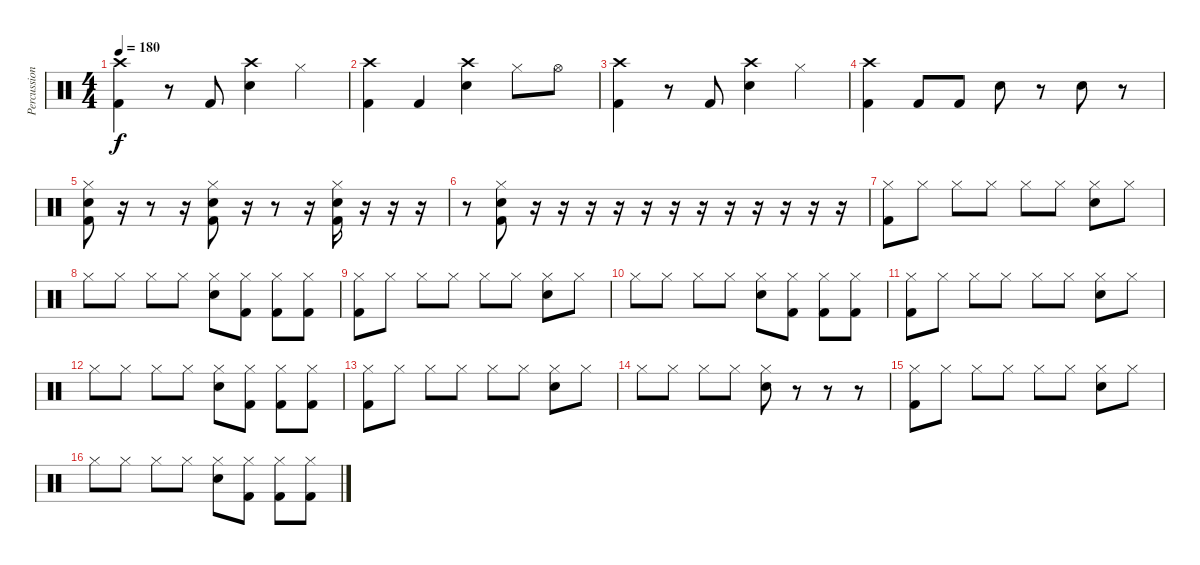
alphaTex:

\track ("Percussion" "Percussion") {instrument percussion}
\staff {score}
\articulation defaults
\ts (4 4)
\tempo 180
\clef neutral
\ks c
("Crash high (hit)" "Kick (hit) 2").4{dy f} r.8 "Kick (hit) 2".8 ("Crash high (hit)" "Electric Snare (hit)").4 "Hi-Hat (closed)".4 |
("Crash high (hit)" "Kick (hit) 2").4 "Kick (hit) 2".4 ("Crash high (hit)" "Electric Snare (hit)").4 "Hi-Hat (closed)".8 "Hi-Hat (open)".8 |
("Crash high (hit)" "Kick (hit) 2").4 r.8 "Kick (hit) 2".8 ("Crash high (hit)" "Electric Snare (hit)").4 "Hi-Hat (closed)".4 |
("Crash high (hit)" "Kick (hit) 2").4 "Kick (hit) 2".8 "Kick (hit) 2".8 "Electric Snare (hit)".8 r.8 "Electric Snare (hit)".8 r.8 |
("Hi-Hat (closed)" "Electric Snare (hit)" "Kick (hit) 2").8 r.16 r.8 r.16 ("Hi-Hat (closed)" "Electric Snare (hit)" "Kick (hit) 2").8 r.16 r.8 r.16 ("Hi-Hat (closed)" "Electric Snare (hit)" "Kick (hit) 2").16 r.16 r.16 r.16 |
r.8 ("Hi-Hat (closed)" "Electric Snare (hit)" "Kick (hit) 2").8 r.16 r.16 r.16 r.16 r.16 r.16 r.16 r.16 r.16 r.16 r.16 r.16 |
("Hi-Hat (closed)" "Kick (hit) 2").8 "Hi-Hat (closed)".8 "Hi-Hat (closed)".8 "Hi-Hat (closed)".8 "Hi-Hat (closed)".8 "Hi-Hat (closed)".8 ("Hi-Hat (closed)" "Electric Snare (hit)").8 "Hi-Hat (closed)".8 |
"Hi-Hat (closed)".8 "Hi-Hat (closed)".8 "Hi-Hat (closed)".8 "Hi-Hat (closed)".8 ("Hi-Hat (closed)" "Electric Snare (hit)").8 ("Hi-Hat (closed)" "Kick (hit) 2").8 ("Hi-Hat (closed)" "Kick (hit) 2").8 ("Hi-Hat (closed)" "Kick (hit) 2").8 |
("Hi-Hat (closed)" "Kick (hit) 2").8 "Hi-Hat (closed)".8 "Hi-Hat (closed)".8 "Hi-Hat (closed)".8 "Hi-Hat (closed)".8 "Hi-Hat (closed)".8 ("Hi-Hat (closed)" "Electric Snare (hit)").8 "Hi-Hat (closed)".8 |
"Hi-Hat (closed)".8 "Hi-Hat (closed)".8 "Hi-Hat (closed)".8 "Hi-Hat (closed)".8 ("Hi-Hat (closed)" "Electric Snare (hit)").8 ("Hi-Hat (closed)" "Kick (hit) 2").8 ("Hi-Hat (closed)" "Kick (hit) 2").8 ("Hi-Hat (closed)" "Kick (hit) 2").8 |
("Hi-Hat (closed)" "Kick (hit) 2").8 "Hi-Hat (closed)".8 "Hi-Hat (closed)".8 "Hi-Hat (closed)".8 "Hi-Hat (closed)".8 "Hi-Hat (closed)".8 ("Hi-Hat (closed)" "Electric Snare (hit)").8 "Hi-Hat (closed)".8 |
"Hi-Hat (closed)".8 "Hi-Hat (closed)".8 "Hi-Hat (closed)".8 "Hi-Hat (closed)".8 ("Hi-Hat (closed)" "Electric Snare (hit)").8 ("Hi-Hat (closed)" "Kick (hit) 2").8 ("Hi-Hat (closed)" "Kick (hit) 2").8 ("Hi-Hat (closed)" "Kick (hit) 2").8 |
("Hi-Hat (closed)" "Kick (hit) 2").8 "Hi-Hat (closed)".8 "Hi-Hat (closed)".8 "Hi-Hat (closed)".8 "Hi-Hat (closed)".8 "Hi-Hat (closed)".8 ("Hi-Hat (closed)" "Electric Snare (hit)").8 "Hi-Hat (closed)".8 |
"Hi-Hat (closed)".8 "Hi-Hat (closed)".8 "Hi-Hat (closed)".8 "Hi-Hat (closed)".8 ("Hi-Hat (closed)" "Electric Snare (hit)").8 r.8 r.8 r.8 |
("Hi-Hat (closed)" "Kick (hit) 2").8 "Hi-Hat (closed)".8 "Hi-Hat (closed)".8 "Hi-Hat (closed)".8 "Hi-Hat (closed)".8 "Hi-Hat (closed)".8 ("Hi-Hat (closed)" "Electric Snare (hit)").8 "Hi-Hat (closed)".8 |
"Hi-Hat (closed)".8 "Hi-Hat (closed)".8 "Hi-Hat (closed)".8 "Hi-Hat (closed)".8 ("Hi-Hat (closed)" "Electric Snare (hit)").8 ("Hi-Hat (closed)" "Kick (hit) 2").8 ("Hi-Hat (closed)" "Kick (hit) 2").8 ("Hi-Hat (closed)" "Kick (hit) 2").8
